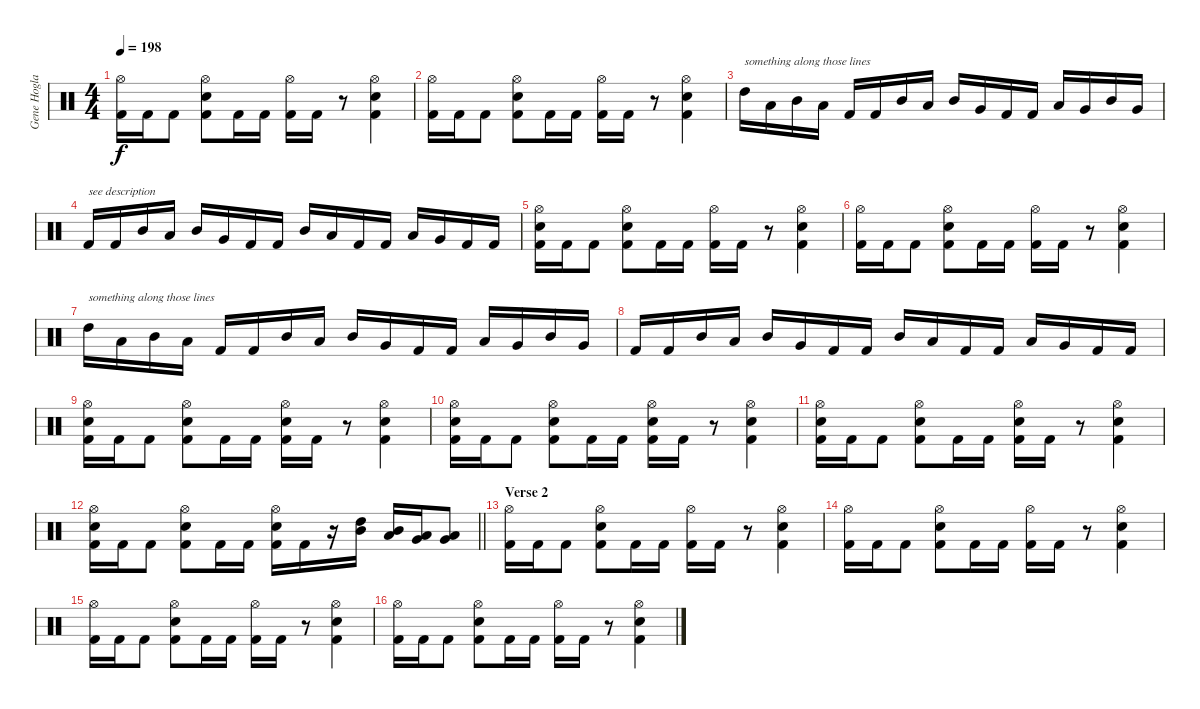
\track ("Gene Hoglan" "Gene Hogla") {instrument percussion}
\staff {score}
\articulation defaults
\ts (4 4)
\tempo 198
\clef neutral
\ks c
("Hi-Hat (open)" "Kick (hit) 2").16{dy f} "Kick (hit) 2".16 "Kick (hit) 2".8 ("Hi-Hat (open)" "Snare (hit) 2" "Kick (hit) 2").8 "Kick (hit) 2".16 "Kick (hit) 2".16 ("Hi-Hat (open)" "Kick (hit) 2").16 "Kick (hit) 2".16 r.8 ("Hi-Hat (open)" "Snare (hit) 2" "Kick (hit) 2").4 |
("Hi-Hat (open)" "Kick (hit) 2").16 "Kick (hit) 2".16 "Kick (hit) 2".8 ("Hi-Hat (open)" "Snare (hit) 2" "Kick (hit) 2").8 "Kick (hit) 2".16 "Kick (hit) 2".16 ("Hi-Hat (open)" "Kick (hit) 2").16 "Kick (hit) 2".16 r.8 ("Hi-Hat (open)" "Snare (hit) 2" "Kick (hit) 2").4 |
"High Tom (hit)".16{txt "something along those lines"} "Low Tom (hit)".16 "Mid Tom (hit)".16 "Low Tom (hit)".16 "Kick (hit) 2".16 "Kick (hit) 2".16 "Mid Tom (hit)".16 "Low Tom (hit)".16 "Mid Tom (hit)".16 "Very Low Tom (hit)".16 "Kick (hit) 2".16 "Kick (hit) 2".16 "Low Tom (hit)".16 "Very Low Tom (hit)".16 "Mid Tom (hit)".16 "Very Low Tom (hit)".16 |
"Kick (hit) 2".16{txt "see description"} "Kick (hit) 2".16 "Mid Tom (hit)".16 "Low Tom (hit)".16 "Mid Tom (hit)".16 "Very Low Tom (hit)".16 "Kick (hit) 2".16 "Kick (hit) 2".16 "Mid Tom (hit)".16 "Low Tom (hit)".16 "Kick (hit) 2".16 "Kick (hit) 2".16 "Low Tom (hit)".16 "Very Low Tom (hit)".16 "Kick (hit) 2".16 "Kick (hit) 2".16 |
("Hi-Hat (open)" "Snare (hit) 2" "Kick (hit) 2").16 "Kick (hit) 2".16 "Kick (hit) 2".8 ("Hi-Hat (open)" "Snare (hit) 2" "Kick (hit) 2").8 "Kick (hit) 2".16 "Kick (hit) 2".16 ("Hi-Hat (open)" "Kick (hit) 2").16 "Kick (hit) 2".16 r.8 ("Hi-Hat (open)" "Snare (hit) 2" "Kick (hit) 2").4 |
("Hi-Hat (open)" "Kick (hit) 2").16 "Kick (hit) 2".16 "Kick (hit) 2".8 ("Hi-Hat (open)" "Snare (hit) 2" "Kick (hit) 2").8 "Kick (hit) 2".16 "Kick (hit) 2".16 ("Hi-Hat (open)" "Kick (hit) 2").16 "Kick (hit) 2".16 r.8 ("Hi-Hat (open)" "Snare (hit) 2" "Kick (hit) 2").4 |
"High Tom (hit)".16{txt "something along those lines"} "Low Tom (hit)".16 "Mid Tom (hit)".16 "Low Tom (hit)".16 "Kick (hit) 2".16 "Kick (hit) 2".16 "Mid Tom (hit)".16 "Low Tom (hit)".16 "Mid Tom (hit)".16 "Very Low Tom (hit)".16 "Kick (hit) 2".16 "Kick (hit) 2".16 "Low Tom (hit)".16 "Very Low Tom (hit)".16 "Mid Tom (hit)".16 "Very Low Tom (hit)".16 |
"Kick (hit) 2".16 "Kick (hit) 2".16 "Mid Tom (hit)".16 "Low Tom (hit)".16 "Mid Tom (hit)".16 "Very Low Tom (hit)".16 "Kick (hit) 2".16 "Kick (hit) 2".16 "Mid Tom (hit)".16 "Low Tom (hit)".16 "Kick (hit) 2".16 "Kick (hit) 2".16 "Low Tom (hit)".16 "Very Low Tom (hit)".16 "Kick (hit) 2".16 "Kick (hit) 2".16 |
("Hi-Hat (open)" "Snare (hit) 2" "Kick (hit) 2").16 "Kick (hit) 2".16 "Kick (hit) 2".8 ("Hi-Hat (open)" "Snare (hit) 2" "Kick (hit) 2").8 "Kick (hit) 2".16 "Kick (hit) 2".16 ("Hi-Hat (open)" "Snare (hit) 2" "Kick (hit) 2").16 "Kick (hit) 2".16 r.8 ("Hi-Hat (open)" "Snare (hit) 2" "Kick (hit) 2").4 |
("Hi-Hat (open)" "Snare (hit) 2" "Kick (hit) 2").16 "Kick (hit) 2".16 "Kick (hit) 2".8 ("Hi-Hat (open)" "Snare (hit) 2" "Kick (hit) 2").8 "Kick (hit) 2".16 "Kick (hit) 2".16 ("Hi-Hat (open)" "Snare (hit) 2" "Kick (hit) 2").16 "Kick (hit) 2".16 r.8 ("Hi-Hat (open)" "Snare (hit) 2" "Kick (hit) 2").4 |
("Hi-Hat (open)" "Snare (hit) 2" "Kick (hit) 2").16 "Kick (hit) 2".16 "Kick (hit) 2".8 ("Hi-Hat (open)" "Snare (hit) 2" "Kick (hit) 2").8 "Kick (hit) 2".16 "Kick (hit) 2".16 ("Hi-Hat (open)" "Snare (hit) 2" "Kick (hit) 2").16 "Kick (hit) 2".16 r.8 ("Hi-Hat (open)" "Snare (hit) 2" "Kick (hit) 2").4 |
\barLineRight lightlight
("Hi-Hat (open)" "Snare (hit) 2" "Kick (hit) 2").16 "Kick (hit) 2".16 "Kick (hit) 2".8 ("Hi-Hat (open)" "Snare (hit) 2" "Kick (hit) 2").8 "Kick (hit) 2".16 "Kick (hit) 2".16 ("Hi-Hat (open)" "Snare (hit) 2" "Kick (hit) 2").16 "Kick (hit) 2".16 r.16 ("Mid Tom (hit)" "High Tom (hit)").16 ("Low Tom (hit)" "Mid Tom (hit)").16 ("Very Low Tom (hit)" "Low Tom (hit)").16 ("Low Floor Tom (hit)" "Very Low Tom (hit)").8 |
\section ("" "Verse 2")
("Hi-Hat (open)" "Kick (hit) 2").16 "Kick (hit) 2".16 "Kick (hit) 2".8 ("Hi-Hat (open)" "Snare (hit) 2" "Kick (hit) 2").8 "Kick (hit) 2".16 "Kick (hit) 2".16 ("Hi-Hat (open)" "Kick (hit) 2").16 "Kick (hit) 2".16 r.8 ("Hi-Hat (open)" "Snare (hit) 2" "Kick (hit) 2").4 |
("Hi-Hat (open)" "Kick (hit) 2").16 "Kick (hit) 2".16 "Kick (hit) 2".8 ("Hi-Hat (open)" "Snare (hit) 2" "Kick (hit) 2").8 "Kick (hit) 2".16 "Kick (hit) 2".16 ("Hi-Hat (open)" "Kick (hit) 2").16 "Kick (hit) 2".16 r.8 ("Hi-Hat (open)" "Snare (hit) 2" "Kick (hit) 2").4 |
("Hi-Hat (open)" "Kick (hit) 2").16 "Kick (hit) 2".16 "Kick (hit) 2".8 ("Hi-Hat (open)" "Snare (hit) 2" "Kick (hit) 2").8 "Kick (hit) 2".16 "Kick (hit) 2".16 ("Hi-Hat (open)" "Kick (hit) 2").16 "Kick (hit) 2".16 r.8 ("Hi-Hat (open)" "Snare (hit) 2" "Kick (hit) 2").4 |
("Hi-Hat (open)" "Kick (hit) 2").16 "Kick (hit) 2".16 "Kick (hit) 2".8 ("Hi-Hat (open)" "Snare (hit) 2" "Kick (hit) 2").8 "Kick (hit) 2".16 "Kick (hit) 2".16 ("Hi-Hat (open)" "Kick (hit) 2").16 "Kick (hit) 2".16 r.8 ("Hi-Hat (open)" "Snare (hit) 2" "Kick (hit) 2").4
